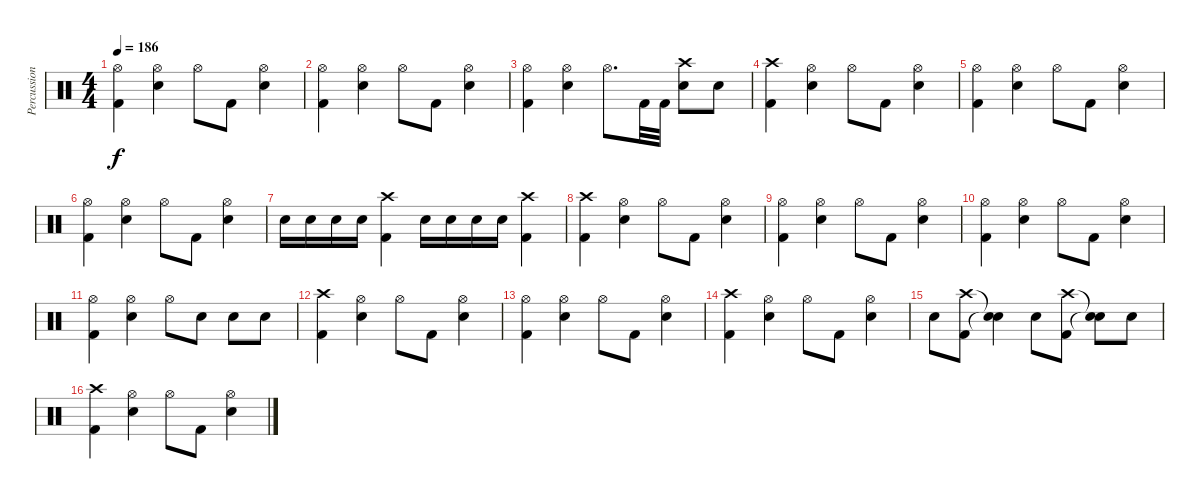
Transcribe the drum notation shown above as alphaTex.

\track ("Percussion" "Percussion") {instrument percussion}
\staff {score}
\articulation defaults
\ts (4 4)
\tempo 186
\clef neutral
\ks c
("Hi-Hat (open)" "Kick (hit) 2").4{dy f} ("Hi-Hat (open)" "Snare (hit) 2").4 "Hi-Hat (open)".8 "Kick (hit) 2".8 ("Hi-Hat (open)" "Snare (hit) 2").4 |
("Hi-Hat (open)" "Kick (hit) 2").4 ("Hi-Hat (open)" "Snare (hit) 2").4 "Hi-Hat (open)".8 "Kick (hit) 2".8 ("Hi-Hat (open)" "Snare (hit) 2").4 |
("Hi-Hat (open)" "Kick (hit) 2").4 ("Hi-Hat (open)" "Snare (hit) 2").4 "Hi-Hat (open)".8{d} "Kick (hit) 2".32 "Kick (hit) 2".32 ("Crash high (hit)" "Snare (hit) 2").8 "Snare (hit) 2".8 |
("Crash high (hit)" "Kick (hit) 2").4 ("Hi-Hat (open)" "Snare (hit) 2").4 "Hi-Hat (open)".8 "Kick (hit) 2".8 ("Hi-Hat (open)" "Snare (hit) 2").4 |
("Hi-Hat (open)" "Kick (hit) 2").4 ("Hi-Hat (open)" "Snare (hit) 2").4 "Hi-Hat (open)".8 "Kick (hit) 2".8 ("Hi-Hat (open)" "Snare (hit) 2").4 |
("Hi-Hat (open)" "Kick (hit) 2").4 ("Hi-Hat (open)" "Snare (hit) 2").4 "Hi-Hat (open)".8 "Kick (hit) 2".8 ("Hi-Hat (open)" "Snare (hit) 2").4 |
"Snare (hit) 2".16 "Snare (hit) 2".16 "Snare (hit) 2".16 "Snare (hit) 2".16 ("Crash high (hit)" "Kick (hit) 2").4 "Snare (hit) 2".16 "Snare (hit) 2".16 "Snare (hit) 2".16 "Snare (hit) 2".16 ("Crash high (hit)" "Kick (hit) 2").4 |
("Crash high (hit)" "Kick (hit) 2").4 ("Hi-Hat (open)" "Snare (hit) 2").4 "Hi-Hat (open)".8 "Kick (hit) 2".8 ("Hi-Hat (open)" "Snare (hit) 2").4 |
("Hi-Hat (open)" "Kick (hit) 2").4 ("Hi-Hat (open)" "Snare (hit) 2").4 "Hi-Hat (open)".8 "Kick (hit) 2".8 ("Hi-Hat (open)" "Snare (hit) 2").4 |
("Hi-Hat (open)" "Kick (hit) 2").4 ("Hi-Hat (open)" "Snare (hit) 2").4 "Hi-Hat (open)".8 "Kick (hit) 2".8 ("Hi-Hat (open)" "Snare (hit) 2").4 |
("Hi-Hat (open)" "Kick (hit) 2").4 ("Hi-Hat (open)" "Snare (hit) 2").4 "Hi-Hat (open)".8 "Snare (hit) 2".8 "Snare (hit) 2".8 "Snare (hit) 2".8 |
("Crash high (hit)" "Kick (hit) 2").4 ("Hi-Hat (open)" "Snare (hit) 2").4 "Hi-Hat (open)".8 "Kick (hit) 2".8 ("Hi-Hat (open)" "Snare (hit) 2").4 |
("Hi-Hat (open)" "Kick (hit) 2").4 ("Hi-Hat (open)" "Snare (hit) 2").4 "Hi-Hat (open)".8 "Kick (hit) 2".8 ("Hi-Hat (open)" "Snare (hit) 2").4 |
("Crash high (hit)" "Kick (hit) 2").4 ("Hi-Hat (open)" "Snare (hit) 2").4 "Hi-Hat (open)".8 "Kick (hit) 2".8 ("Hi-Hat (open)" "Snare (hit) 2").4 |
"Snare (hit) 2".8 ("Crash high (hit)" "Kick (hit) 2").8 ("Snare (hit)"{t} "Snare (hit)"{t}).4 "Snare (hit) 2".8 ("Crash high (hit)" "Kick (hit) 2").8 ("Snare (hit)"{t} "Snare (hit)"{t}).8 "Snare (hit) 2".8 |
("Crash high (hit)" "Kick (hit) 2").4 ("Hi-Hat (open)" "Snare (hit) 2").4 "Hi-Hat (open)".8 "Kick (hit) 2".8 ("Hi-Hat (open)" "Snare (hit) 2").4
